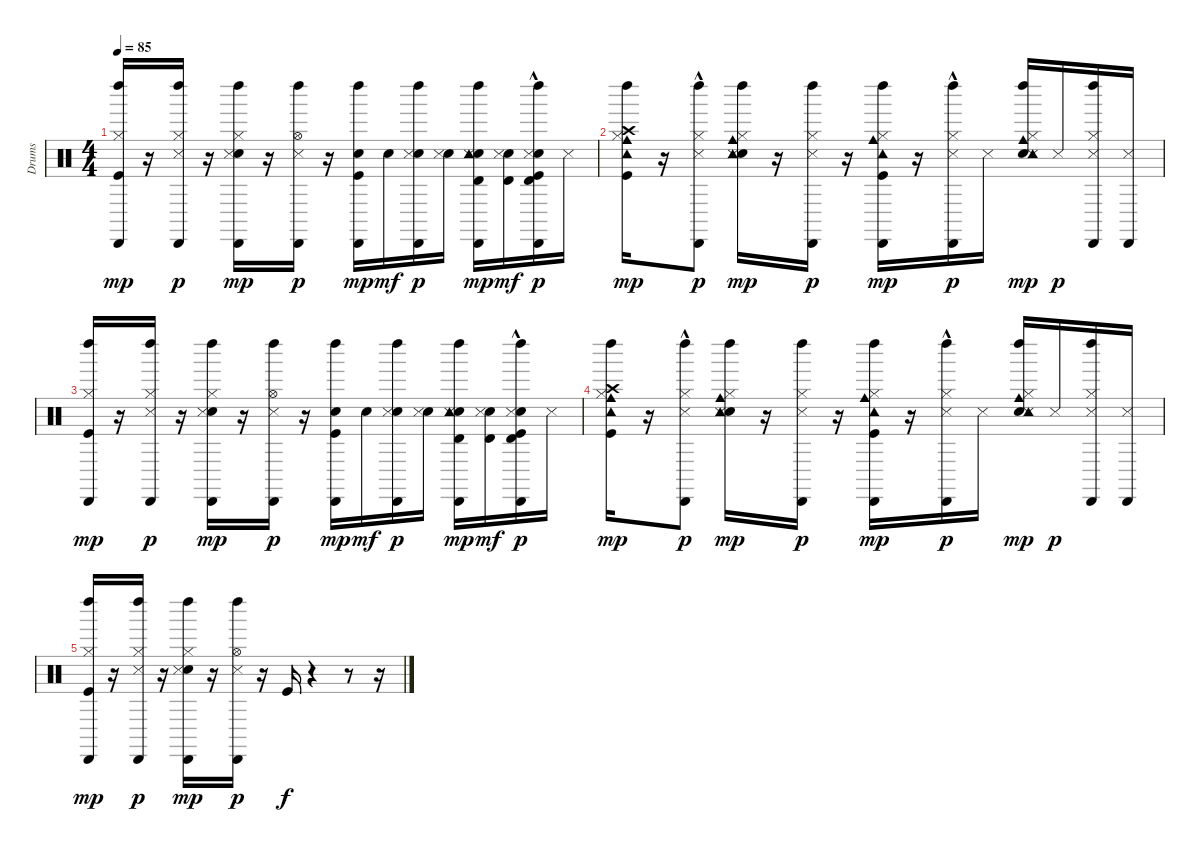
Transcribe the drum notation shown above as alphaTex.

\track ("Drums" "Drums") {instrument percussion}
\staff {score}
\articulation defaults
\ts (4 4)
\tempo 85
\clef neutral
\ks c
("Kick (hit)" "Hi-Hat (closed)" "Left Maraca (hit)" "Cabasa (hit)").16{dy mp} r.16 ("Hi-Hat (closed)" "Snare (side stick) 3" "Left Maraca (hit)" "Cabasa (hit)").16{dy p} r.16 ("Snare (hit) 2" "Hi-Hat (closed)" "Snare (side stick) 3" "Left Maraca (hit)" "Cabasa (hit)").16{dy mp} r.16 ("Hi-Hat (open)" "Snare (side stick) 3" "Left Maraca (hit)" "Cabasa (hit)").16{dy p} r.16 ("Kick (hit)" "Snare (hit) 2" "Left Maraca (hit)" "Cabasa (hit)").16{dy mp} "Snare (hit) 2".16{dy mf} ("Snare (hit) 2" "Snare (side stick) 3" "Left Maraca (hit)" "Cabasa (hit)").16{dy p} ("Snare (hit) 2" "Snare (side stick) 3").16 ("Snare (hit) 2" "Snare (side stick) 3" "Timbale high (hit)" "Tambourine (hit)" "Left Maraca (hit)" "Cabasa (hit)").16{dy mp} ("Snare (hit) 2" "Snare (side stick) 3" "Timbale high (hit)").16{dy mf} ("Kick (hit)" "Snare (hit) 2" "Snare (side stick) 3" "Timbale high (hit)" "Left Maraca (hit)" "Cabasa (hit)"{hac}).16{dy p} "Snare (side stick) 3".16 |
("Kick (hit)" "Hi-Hat (closed)" "Cowbell medium (hit)" "Crash high (hit)" "Tambourine (hit)" "Left Maraca (hit)").16{dy mp} r.16 ("Hi-Hat (closed)" "Snare (side stick) 3" "Left Maraca (hit)" "Cabasa (hit)"{hac}).8{dy p} ("Snare (hit) 2" "Hi-Hat (closed)" "Snare (side stick) 3" "Cowbell medium (hit)" "Tambourine (hit)" "Left Maraca (hit)").16{dy mp} r.16 ("Hi-Hat (closed)" "Snare (side stick) 3" "Left Maraca (hit)" "Cabasa (hit)").16{dy p} r.16 ("Kick (hit)" "Hi-Hat (closed)" "Cowbell medium (hit)" "Tambourine (hit)" "Left Maraca (hit)" "Cabasa (hit)").16{dy mp} r.16 ("Hi-Hat (closed)" "Snare (side stick) 3" "Left Maraca (hit)" "Cabasa (hit)"{hac}).16{dy p} "Snare (side stick) 3".16 ("Snare (hit) 2" "Hi-Hat (closed)" "Snare (side stick) 3" "Cowbell medium (hit)" "Tambourine (hit)" "Left Maraca (hit)").16{dy mp} "Snare (side stick) 3".16{dy p} ("Hi-Hat (closed)" "Snare (side stick) 3" "Left Maraca (hit)" "Cabasa (hit)").16 ("Snare (side stick) 3" "Cabasa (hit)").16 |
("Kick (hit)" "Hi-Hat (closed)" "Left Maraca (hit)" "Cabasa (hit)").16{dy mp} r.16 ("Hi-Hat (closed)" "Snare (side stick) 3" "Left Maraca (hit)" "Cabasa (hit)").16{dy p} r.16 ("Snare (hit) 2" "Hi-Hat (closed)" "Snare (side stick) 3" "Left Maraca (hit)" "Cabasa (hit)").16{dy mp} r.16 ("Hi-Hat (open)" "Snare (side stick) 3" "Left Maraca (hit)" "Cabasa (hit)").16{dy p} r.16 ("Kick (hit)" "Snare (hit) 2" "Left Maraca (hit)" "Cabasa (hit)").16{dy mp} "Snare (hit) 2".16{dy mf} ("Snare (hit) 2" "Snare (side stick) 3" "Left Maraca (hit)" "Cabasa (hit)").16{dy p} ("Snare (hit) 2" "Snare (side stick) 3").16 ("Snare (hit) 2" "Snare (side stick) 3" "Timbale high (hit)" "Tambourine (hit)" "Left Maraca (hit)" "Cabasa (hit)").16{dy mp} ("Snare (hit) 2" "Snare (side stick) 3" "Timbale high (hit)").16{dy mf} ("Kick (hit)" "Snare (hit) 2" "Snare (side stick) 3" "Timbale high (hit)" "Left Maraca (hit)" "Cabasa (hit)"{hac}).16{dy p} "Snare (side stick) 3".16 |
("Kick (hit)" "Hi-Hat (closed)" "Cowbell medium (hit)" "Crash high (hit)" "Tambourine (hit)" "Left Maraca (hit)").16{dy mp} r.16 ("Hi-Hat (closed)" "Snare (side stick) 3" "Left Maraca (hit)" "Cabasa (hit)"{hac}).8{dy p} ("Snare (hit) 2" "Hi-Hat (closed)" "Snare (side stick) 3" "Cowbell medium (hit)" "Tambourine (hit)" "Left Maraca (hit)").16{dy mp} r.16 ("Hi-Hat (closed)" "Snare (side stick) 3" "Left Maraca (hit)" "Cabasa (hit)").16{dy p} r.16 ("Kick (hit)" "Hi-Hat (closed)" "Cowbell medium (hit)" "Tambourine (hit)" "Left Maraca (hit)" "Cabasa (hit)").16{dy mp} r.16 ("Hi-Hat (closed)" "Snare (side stick) 3" "Left Maraca (hit)" "Cabasa (hit)"{hac}).16{dy p} "Snare (side stick) 3".16 ("Snare (hit) 2" "Hi-Hat (closed)" "Snare (side stick) 3" "Cowbell medium (hit)" "Tambourine (hit)" "Left Maraca (hit)").16{dy mp} "Snare (side stick) 3".16{dy p} ("Hi-Hat (closed)" "Snare (side stick) 3" "Left Maraca (hit)" "Cabasa (hit)").16 ("Snare (side stick) 3" "Cabasa (hit)").16 |
("Kick (hit)" "Hi-Hat (closed)" "Left Maraca (hit)" "Cabasa (hit)").16{dy mp} r.16 ("Hi-Hat (closed)" "Snare (side stick) 3" "Left Maraca (hit)" "Cabasa (hit)").16{dy p} r.16 ("Snare (hit) 2" "Hi-Hat (closed)" "Snare (side stick) 3" "Left Maraca (hit)" "Cabasa (hit)").16{dy mp} r.16 ("Hi-Hat (open)" "Snare (side stick) 3" "Left Maraca (hit)" "Cabasa (hit)").16{dy p} r.16 "Kick (hit)".16{dy f} r.4 r.8 r.16
